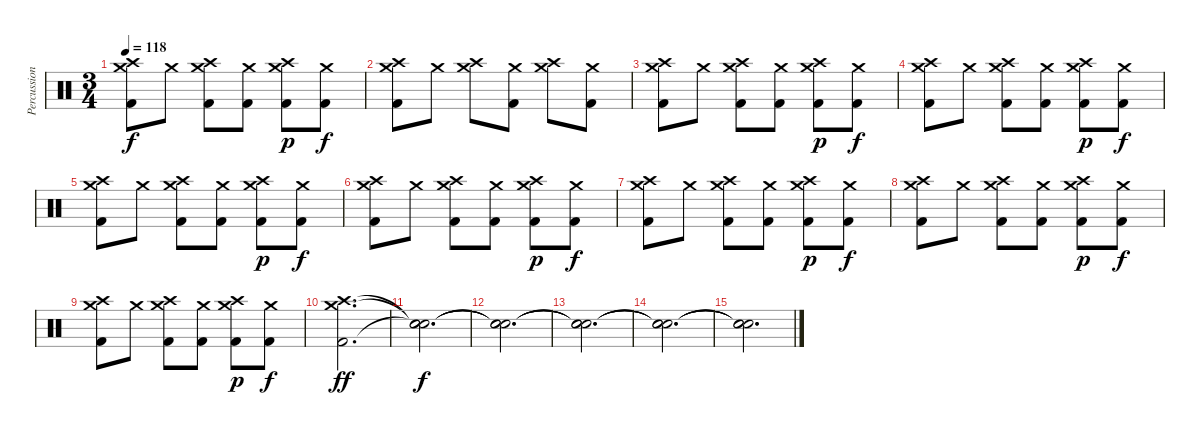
\track ("Percussion" "Percussion") {instrument percussion}
\staff {score}
\articulation defaults
\ts (3 4)
\tempo 118
\clef neutral
\ks c
("Crash medium (hit)" "Crash high (hit)" "Kick (hit) 2").8{dy f} "Crash medium (hit)".8 ("Crash medium (hit)" "Crash high (hit)" "Kick (hit) 2").8 ("Crash medium (hit)" "Kick (hit) 2").8 ("Crash medium (hit)" "Crash high (hit)" "Kick (hit) 2").8{dy p} ("Crash medium (hit)" "Kick (hit) 2").8{dy f} |
("Crash medium (hit)" "Crash high (hit)" "Kick (hit) 2").8 "Crash medium (hit)".8 ("Crash medium (hit)" "Crash high (hit)").8 ("Crash medium (hit)" "Kick (hit) 2").8 ("Crash medium (hit)" "Crash high (hit)").8 ("Crash medium (hit)" "Kick (hit) 2").8 |
("Crash medium (hit)" "Crash high (hit)" "Kick (hit) 2").8 "Crash medium (hit)".8 ("Crash medium (hit)" "Crash high (hit)" "Kick (hit) 2").8 ("Crash medium (hit)" "Kick (hit) 2").8 ("Crash medium (hit)" "Crash high (hit)" "Kick (hit) 2").8{dy p} ("Crash medium (hit)" "Kick (hit) 2").8{dy f} |
("Crash medium (hit)" "Crash high (hit)" "Kick (hit) 2").8 "Crash medium (hit)".8 ("Crash medium (hit)" "Crash high (hit)" "Kick (hit) 2").8 ("Crash medium (hit)" "Kick (hit) 2").8 ("Crash medium (hit)" "Crash high (hit)" "Kick (hit) 2").8{dy p} ("Crash medium (hit)" "Kick (hit) 2").8{dy f} |
("Crash medium (hit)" "Crash high (hit)" "Kick (hit) 2").8 "Crash medium (hit)".8 ("Crash medium (hit)" "Crash high (hit)" "Kick (hit) 2").8 ("Crash medium (hit)" "Kick (hit) 2").8 ("Crash medium (hit)" "Crash high (hit)" "Kick (hit) 2").8{dy p} ("Crash medium (hit)" "Kick (hit) 2").8{dy f} |
("Crash medium (hit)" "Crash high (hit)" "Kick (hit) 2").8 "Crash medium (hit)".8 ("Crash medium (hit)" "Crash high (hit)" "Kick (hit) 2").8 ("Crash medium (hit)" "Kick (hit) 2").8 ("Crash medium (hit)" "Crash high (hit)" "Kick (hit) 2").8{dy p} ("Crash medium (hit)" "Kick (hit) 2").8{dy f} |
("Crash medium (hit)" "Crash high (hit)" "Kick (hit) 2").8 "Crash medium (hit)".8 ("Crash medium (hit)" "Crash high (hit)" "Kick (hit) 2").8 ("Crash medium (hit)" "Kick (hit) 2").8 ("Crash medium (hit)" "Crash high (hit)" "Kick (hit) 2").8{dy p} ("Crash medium (hit)" "Kick (hit) 2").8{dy f} |
("Crash medium (hit)" "Crash high (hit)" "Kick (hit) 2").8 "Crash medium (hit)".8 ("Crash medium (hit)" "Crash high (hit)" "Kick (hit) 2").8 ("Crash medium (hit)" "Kick (hit) 2").8 ("Crash medium (hit)" "Crash high (hit)" "Kick (hit) 2").8{dy p} ("Crash medium (hit)" "Kick (hit) 2").8{dy f} |
("Crash medium (hit)" "Crash high (hit)" "Kick (hit) 2").8 "Crash medium (hit)".8 ("Crash medium (hit)" "Crash high (hit)" "Kick (hit) 2").8 ("Crash medium (hit)" "Kick (hit) 2").8 ("Crash medium (hit)" "Crash high (hit)" "Kick (hit) 2").8{dy p} ("Crash medium (hit)" "Kick (hit) 2").8{dy f} |
("Crash medium (hit)" "Crash high (hit)" "Kick (hit) 2").2{d dy ff} |
("Snare (hit)"{t} "Snare (hit)"{t} "Snare (hit)"{t}).2{d dy f} |
("Snare (hit)"{t} "Snare (hit)"{t} "Snare (hit)"{t}).2{d} |
("Snare (hit)"{t} "Snare (hit)"{t} "Snare (hit)"{t}).2{d} |
("Snare (hit)"{t} "Snare (hit)"{t} "Snare (hit)"{t}).2{d} |
("Snare (hit)"{t} "Snare (hit)"{t} "Snare (hit)"{t}).2{d}
